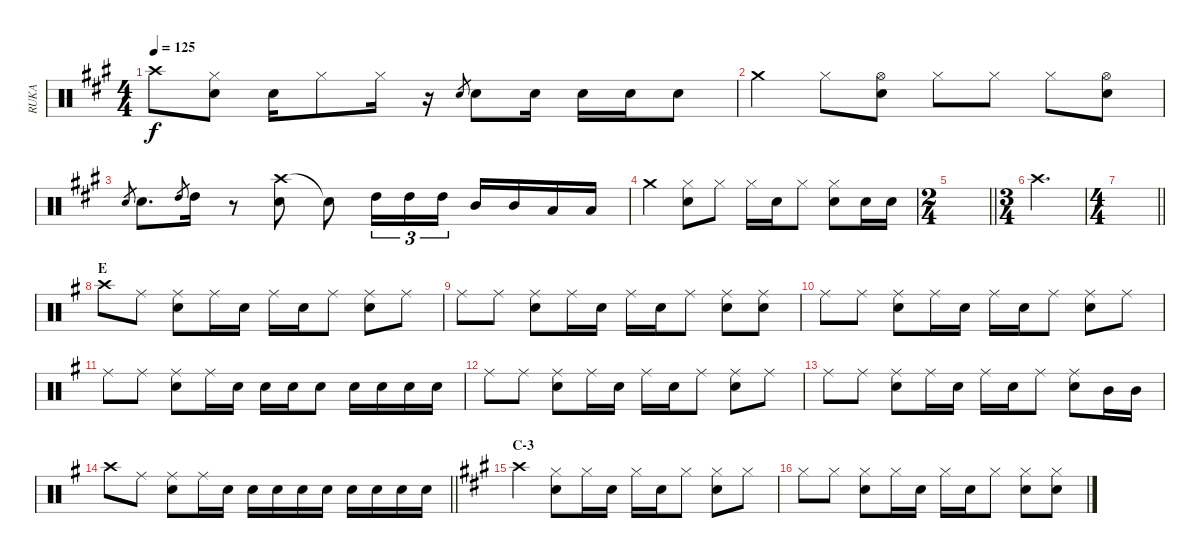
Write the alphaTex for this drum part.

\track ("RUKA" "RUKA") {instrument percussion}
\staff {score}
\articulation defaults
\ts (4 4)
\tempo 125
\clef neutral
\ks a "Crash high (hit)".8{dy f}
("Hi-Hat (closed)" "Snare (hit) 2").8 "Snare (hit) 2".16 "Hi-Hat (closed)".8 "Hi-Hat (closed)".16 r.16 "Snare (hit) 2".8{gr} "Snare (hit) 2".8 "Snare (hit) 2".16 "Snare (hit) 2".16 "Snare (hit) 2".16 "Snare (hit) 2".8 |
"Crash medium (hit)".4 "Hi-Hat (closed)".8 ("Hi-Hat (open)" "Snare (hit) 2").8 "Hi-Hat (closed)".8 "Hi-Hat (closed)".8 "Hi-Hat (closed)".8 ("Hi-Hat (open)" "Snare (hit) 2").8 |
"Snare (hit) 2".8{gr} "Snare (hit) 2".8{d} "High Tom (hit)".8{gr} "High Tom (hit)".16 r.8 ("Crash high (hit)" "Snare (hit) 2").8 "Snare (hit)"{t}.8 "High Tom (hit)".16{tu (3 2)} "High Tom (hit)".16{tu (3 2)} "High Tom (hit)".16{tu (3 2)} "Mid Tom (hit)".16 "Mid Tom (hit)".16 "Low Tom (hit)".16 "Low Tom (hit)".16 |
"Crash medium (hit)".4 ("Hi-Hat (closed)" "Snare (hit) 2").8 "Hi-Hat (closed)".8 "Hi-Hat (closed)".16 "Snare (hit) 2".16 "Hi-Hat (closed)".8 ("Hi-Hat (closed)" "Snare (hit) 2").8 "Snare (hit) 2".16 "Snare (hit) 2".16 |
\ts (2 4)
\barLineRight lightlight
|
\ts (3 4)
"Crash high (hit)".2{d} |
\ts (4 4)
\barLineRight lightlight
|
\section ("" "E")
\ks g "Crash high (hit)".8 "Ride (middle)".8
("Ride (middle)" "Snare (hit) 2").8 "Ride (middle)".16 "Snare (hit) 2".16 "Ride (middle)".16 "Snare (hit) 2".16 "Ride (middle)".8 ("Ride (middle)" "Snare (hit) 2").8 "Ride (middle)".8 |
"Ride (middle)".8 "Ride (middle)".8 ("Ride (middle)" "Snare (hit) 2").8 "Ride (middle)".16 "Snare (hit) 2".16 "Ride (middle)".16 "Snare (hit) 2".16 "Ride (middle)".8 ("Ride (middle)" "Snare (hit) 2").8 ("Ride (middle)" "Snare (hit) 2").8 |
"Ride (middle)".8 "Ride (middle)".8 ("Ride (middle)" "Snare (hit) 2").8 "Ride (middle)".16 "Snare (hit) 2".16 "Ride (middle)".16 "Snare (hit) 2".16 "Ride (middle)".8 ("Ride (middle)" "Snare (hit) 2").8 "Ride (middle)".8 |
"Ride (middle)".8 "Ride (middle)".8 ("Ride (middle)" "Snare (hit) 2").8 "Ride (middle)".16 "Snare (hit) 2".16 "Snare (hit) 2".16 "Snare (hit) 2".16 "Snare (hit) 2".8 "Snare (hit) 2".16 "Snare (hit) 2".16 "Snare (hit) 2".16 "Snare (hit) 2".16 |
"Ride (middle)".8 "Ride (middle)".8 ("Ride (middle)" "Snare (hit) 2").8 "Ride (middle)".16 "Snare (hit) 2".16 "Ride (middle)".16 "Snare (hit) 2".16 "Ride (middle)".8 ("Ride (middle)" "Snare (hit) 2").8 "Ride (middle)".8 |
"Ride (middle)".8 "Ride (middle)".8 ("Ride (middle)" "Snare (hit) 2").8 "Ride (middle)".16 "Snare (hit) 2".16 "Ride (middle)".16 "Snare (hit) 2".16 "Ride (middle)".8 ("Ride (middle)" "Snare (hit) 2").8 "Mid Tom (hit)".16 "Mid Tom (hit)".16 |
\barLineRight lightlight "Crash high (hit)".8 "Ride (middle)".8
("Ride (middle)" "Snare (hit) 2").8 "Ride (middle)".16 "Snare (hit) 2".16 "Snare (hit) 2".16 "Snare (hit) 2".16 "Snare (hit) 2".16 "Snare (hit) 2".16 "Snare (hit) 2".16 "Snare (hit) 2".16 "Snare (hit) 2".16 "Snare (hit) 2".16 |
\section ("" "C-3")
\ks a "Crash high (hit)".4
("Hi-Hat (closed)" "Snare (hit) 2").8 "Hi-Hat (closed)".16 "Snare (hit) 2".16 "Hi-Hat (closed)".16 "Snare (hit) 2".16 "Hi-Hat (closed)".8 ("Hi-Hat (closed)" "Snare (hit) 2").8 "Hi-Hat (closed)".8 |
"Hi-Hat (closed)".8 "Hi-Hat (closed)".8 ("Hi-Hat (closed)" "Snare (hit) 2").8 "Hi-Hat (closed)".16 "Snare (hit) 2".16 "Hi-Hat (closed)".16 "Snare (hit) 2".16 "Hi-Hat (closed)".8 ("Hi-Hat (closed)" "Snare (hit) 2").8 ("Hi-Hat (closed)" "Snare (hit) 2").8
